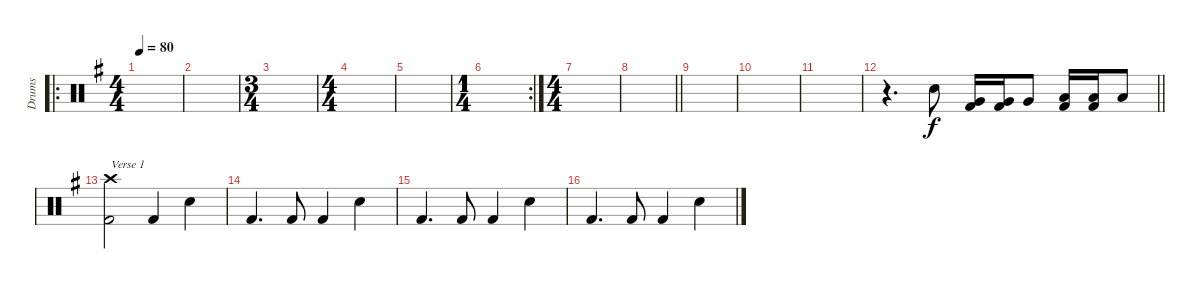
\track ("Drums" "Drums") {instrument percussion}
\staff {score}
\articulation defaults
\ro
\ts (4 4)
\tempo 80
\clef neutral
\ks g
|
|
\ts (3 4)
|
\ts (4 4)
|
|
\rc 2
\ts (1 4)
|
\ts (4 4)
|
\barLineRight lightlight
|
|
|
|
\barLineRight lightlight
r.4{d} "Snare (hit) 2".8 ("Very Low Tom (hit)" "Kick (hit) 2").16 ("Very Low Tom (hit)" "Kick (hit) 2").16 "Very Low Tom (hit)".8 ("Low Floor Tom (hit)" "Kick (hit) 2").16 ("Low Floor Tom (hit)" "Kick (hit) 2").16 "Low Floor Tom (hit)".8 |
("Crash high (hit)" "Kick (hit) 2").2{txt "Verse 1"} "Kick (hit) 2".4 "Snare (hit) 2".4 |
"Kick (hit) 2".4{d} "Kick (hit) 2".8 "Kick (hit) 2".4 "Snare (hit) 2".4 |
"Kick (hit) 2".4{d} "Kick (hit) 2".8 "Kick (hit) 2".4 "Snare (hit) 2".4 |
"Kick (hit) 2".4{d} "Kick (hit) 2".8 "Kick (hit) 2".4 "Snare (hit) 2".4
